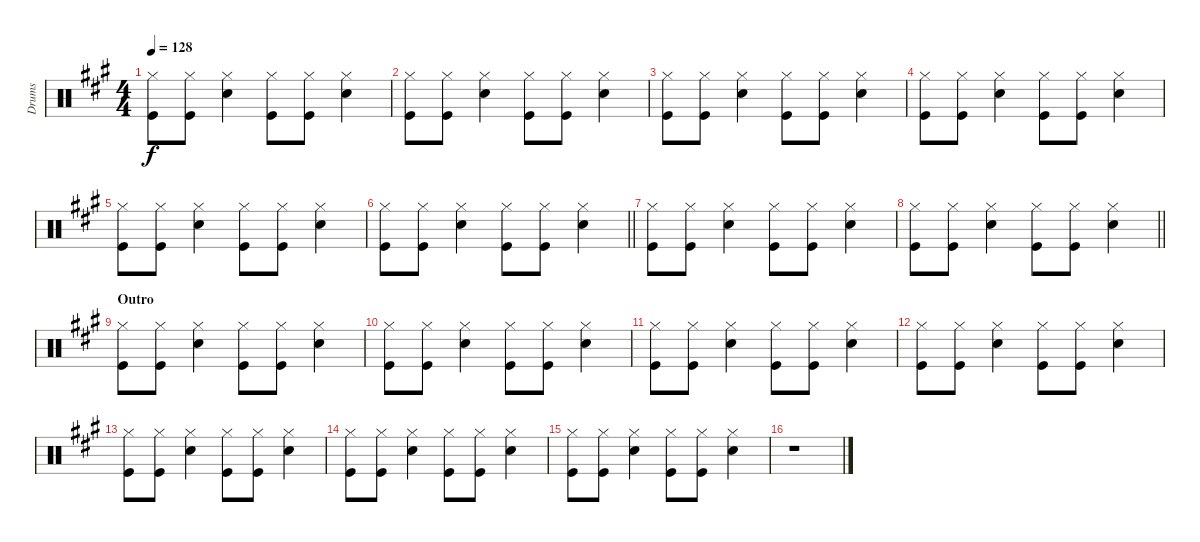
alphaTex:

\track ("Drums" "Drums") {instrument percussion}
\staff
\articulation defaults
\ts (4 4)
\tempo 128
\clef neutral
\ks a
("Hi-Hat (closed)" "Kick (hit)").8{dy f} ("Hi-Hat (closed)" "Kick (hit)").8 ("Hi-Hat (closed)" "Snare (hit) 2").4 ("Hi-Hat (closed)" "Kick (hit)").8 ("Hi-Hat (closed)" "Kick (hit)").8 ("Hi-Hat (closed)" "Snare (hit) 2").4 |
("Hi-Hat (closed)" "Kick (hit)").8 ("Hi-Hat (closed)" "Kick (hit)").8 ("Hi-Hat (closed)" "Snare (hit) 2").4 ("Hi-Hat (closed)" "Kick (hit)").8 ("Hi-Hat (closed)" "Kick (hit)").8 ("Hi-Hat (closed)" "Snare (hit) 2").4 |
("Hi-Hat (closed)" "Kick (hit)").8 ("Hi-Hat (closed)" "Kick (hit)").8 ("Hi-Hat (closed)" "Snare (hit) 2").4 ("Hi-Hat (closed)" "Kick (hit)").8 ("Hi-Hat (closed)" "Kick (hit)").8 ("Hi-Hat (closed)" "Snare (hit) 2").4 |
("Hi-Hat (closed)" "Kick (hit)").8 ("Hi-Hat (closed)" "Kick (hit)").8 ("Hi-Hat (closed)" "Snare (hit) 2").4 ("Hi-Hat (closed)" "Kick (hit)").8 ("Hi-Hat (closed)" "Kick (hit)").8 ("Hi-Hat (closed)" "Snare (hit) 2").4 |
("Hi-Hat (closed)" "Kick (hit)").8 ("Hi-Hat (closed)" "Kick (hit)").8 ("Hi-Hat (closed)" "Snare (hit) 2").4 ("Hi-Hat (closed)" "Kick (hit)").8 ("Hi-Hat (closed)" "Kick (hit)").8 ("Hi-Hat (closed)" "Snare (hit) 2").4 |
\barLineRight lightlight
("Hi-Hat (closed)" "Kick (hit)").8 ("Hi-Hat (closed)" "Kick (hit)").8 ("Hi-Hat (closed)" "Snare (hit) 2").4 ("Hi-Hat (closed)" "Kick (hit)").8 ("Hi-Hat (closed)" "Kick (hit)").8 ("Hi-Hat (closed)" "Snare (hit) 2").4 |
("Hi-Hat (closed)" "Kick (hit)").8 ("Hi-Hat (closed)" "Kick (hit)").8 ("Hi-Hat (closed)" "Snare (hit) 2").4 ("Hi-Hat (closed)" "Kick (hit)").8 ("Hi-Hat (closed)" "Kick (hit)").8 ("Hi-Hat (closed)" "Snare (hit) 2").4 |
\barLineRight lightlight
("Hi-Hat (closed)" "Kick (hit)").8 ("Hi-Hat (closed)" "Kick (hit)").8 ("Hi-Hat (closed)" "Snare (hit) 2").4 ("Hi-Hat (closed)" "Kick (hit)").8 ("Hi-Hat (closed)" "Kick (hit)").8 ("Hi-Hat (closed)" "Snare (hit) 2").4 |
\section ("" "Outro")
("Hi-Hat (closed)" "Kick (hit)").8 ("Hi-Hat (closed)" "Kick (hit)").8 ("Hi-Hat (closed)" "Snare (hit) 2").4 ("Hi-Hat (closed)" "Kick (hit)").8 ("Hi-Hat (closed)" "Kick (hit)").8 ("Hi-Hat (closed)" "Snare (hit) 2").4 |
("Hi-Hat (closed)" "Kick (hit)").8 ("Hi-Hat (closed)" "Kick (hit)").8 ("Hi-Hat (closed)" "Snare (hit) 2").4 ("Hi-Hat (closed)" "Kick (hit)").8 ("Hi-Hat (closed)" "Kick (hit)").8 ("Hi-Hat (closed)" "Snare (hit) 2").4 |
("Hi-Hat (closed)" "Kick (hit)").8 ("Hi-Hat (closed)" "Kick (hit)").8 ("Hi-Hat (closed)" "Snare (hit) 2").4 ("Hi-Hat (closed)" "Kick (hit)").8 ("Hi-Hat (closed)" "Kick (hit)").8 ("Hi-Hat (closed)" "Snare (hit) 2").4 |
("Hi-Hat (closed)" "Kick (hit)").8 ("Hi-Hat (closed)" "Kick (hit)").8 ("Hi-Hat (closed)" "Snare (hit) 2").4 ("Hi-Hat (closed)" "Kick (hit)").8 ("Hi-Hat (closed)" "Kick (hit)").8 ("Hi-Hat (closed)" "Snare (hit) 2").4 |
("Hi-Hat (closed)" "Kick (hit)").8 ("Hi-Hat (closed)" "Kick (hit)").8 ("Hi-Hat (closed)" "Snare (hit) 2").4 ("Hi-Hat (closed)" "Kick (hit)").8 ("Hi-Hat (closed)" "Kick (hit)").8 ("Hi-Hat (closed)" "Snare (hit) 2").4 |
("Hi-Hat (closed)" "Kick (hit)").8 ("Hi-Hat (closed)" "Kick (hit)").8 ("Hi-Hat (closed)" "Snare (hit) 2").4 ("Hi-Hat (closed)" "Kick (hit)").8 ("Hi-Hat (closed)" "Kick (hit)").8 ("Hi-Hat (closed)" "Snare (hit) 2").4 |
("Hi-Hat (closed)" "Kick (hit)").8 ("Hi-Hat (closed)" "Kick (hit)").8 ("Hi-Hat (closed)" "Snare (hit) 2").4 ("Hi-Hat (closed)" "Kick (hit)").8 ("Hi-Hat (closed)" "Kick (hit)").8 ("Hi-Hat (closed)" "Snare (hit) 2").4 |
r.1
